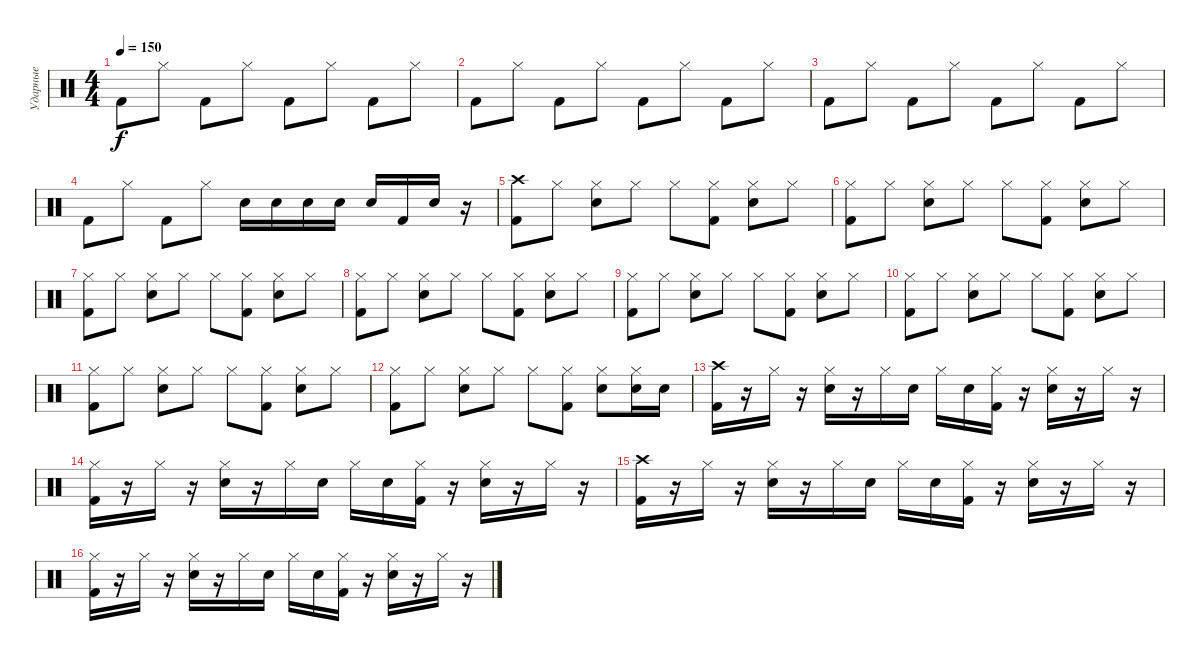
\track ("Ударные" "Ударные") {instrument percussion}
\staff {score}
\articulation defaults
\ts (4 4)
\tempo 150
\clef neutral
\ks c "Kick (hit) 2".8{dy f} "Hi-Hat (closed)".8 "Kick (hit) 2".8 "Hi-Hat (closed)".8 "Kick (hit) 2".8 "Hi-Hat (closed)".8 "Kick (hit) 2".8 "Hi-Hat (closed)".8
|
"Kick (hit) 2".8 "Hi-Hat (closed)".8 "Kick (hit) 2".8 "Hi-Hat (closed)".8 "Kick (hit) 2".8 "Hi-Hat (closed)".8 "Kick (hit) 2".8 "Hi-Hat (closed)".8 |
"Kick (hit) 2".8 "Hi-Hat (closed)".8 "Kick (hit) 2".8 "Hi-Hat (closed)".8 "Kick (hit) 2".8 "Hi-Hat (closed)".8 "Kick (hit) 2".8 "Hi-Hat (closed)".8 |
"Kick (hit) 2".8 "Hi-Hat (closed)".8 "Kick (hit) 2".8 "Hi-Hat (closed)".8 "Electric Snare (hit)".16 "Electric Snare (hit)".16 "Electric Snare (hit)".16 "Electric Snare (hit)".16 "Electric Snare (hit)".16 "Kick (hit) 2".16 "Electric Snare (hit)".16 r.16 |
("Kick (hit) 2" "Crash high (hit)").8 "Hi-Hat (closed)".8 ("Electric Snare (hit)" "Hi-Hat (closed)").8 "Hi-Hat (closed)".8 "Hi-Hat (closed)".8 ("Kick (hit) 2" "Hi-Hat (closed)").8 ("Electric Snare (hit)" "Hi-Hat (closed)").8 "Hi-Hat (closed)".8 |
("Kick (hit) 2" "Hi-Hat (closed)").8 "Hi-Hat (closed)".8 ("Electric Snare (hit)" "Hi-Hat (closed)").8 "Hi-Hat (closed)".8 "Hi-Hat (closed)".8 ("Kick (hit) 2" "Hi-Hat (closed)").8 ("Electric Snare (hit)" "Hi-Hat (closed)").8 "Hi-Hat (closed)".8 |
("Kick (hit) 2" "Hi-Hat (closed)").8 "Hi-Hat (closed)".8 ("Electric Snare (hit)" "Hi-Hat (closed)").8 "Hi-Hat (closed)".8 "Hi-Hat (closed)".8 ("Kick (hit) 2" "Hi-Hat (closed)").8 ("Electric Snare (hit)" "Hi-Hat (closed)").8 "Hi-Hat (closed)".8 |
("Kick (hit) 2" "Hi-Hat (closed)").8 "Hi-Hat (closed)".8 ("Electric Snare (hit)" "Hi-Hat (closed)").8 "Hi-Hat (closed)".8 "Hi-Hat (closed)".8 ("Kick (hit) 2" "Hi-Hat (closed)").8 ("Electric Snare (hit)" "Hi-Hat (closed)").8 "Hi-Hat (closed)".8 |
("Kick (hit) 2" "Hi-Hat (closed)").8 "Hi-Hat (closed)".8 ("Electric Snare (hit)" "Hi-Hat (closed)").8 "Hi-Hat (closed)".8 "Hi-Hat (closed)".8 ("Kick (hit) 2" "Hi-Hat (closed)").8 ("Electric Snare (hit)" "Hi-Hat (closed)").8 "Hi-Hat (closed)".8 |
("Kick (hit) 2" "Hi-Hat (closed)").8 "Hi-Hat (closed)".8 ("Electric Snare (hit)" "Hi-Hat (closed)").8 "Hi-Hat (closed)".8 "Hi-Hat (closed)".8 ("Kick (hit) 2" "Hi-Hat (closed)").8 ("Electric Snare (hit)" "Hi-Hat (closed)").8 "Hi-Hat (closed)".8 |
("Kick (hit) 2" "Hi-Hat (closed)").8 "Hi-Hat (closed)".8 ("Electric Snare (hit)" "Hi-Hat (closed)").8 "Hi-Hat (closed)".8 "Hi-Hat (closed)".8 ("Kick (hit) 2" "Hi-Hat (closed)").8 ("Electric Snare (hit)" "Hi-Hat (closed)").8 "Hi-Hat (closed)".8 |
("Kick (hit) 2" "Hi-Hat (closed)").8 "Hi-Hat (closed)".8 ("Electric Snare (hit)" "Hi-Hat (closed)").8 "Hi-Hat (closed)".8 "Hi-Hat (closed)".8 ("Kick (hit) 2" "Hi-Hat (closed)").8 ("Electric Snare (hit)" "Hi-Hat (closed)").8 ("Electric Snare (hit)" "Hi-Hat (closed)").16 "Electric Snare (hit)".16 |
("Kick (hit) 2" "Crash high (hit)").16 r.16 "Hi-Hat (closed)".16 r.16 ("Electric Snare (hit)" "Hi-Hat (closed)").16 r.16 "Hi-Hat (closed)".16 "Electric Snare (hit)".16 "Hi-Hat (closed)".16 "Electric Snare (hit)".16 ("Kick (hit) 2" "Hi-Hat (closed)").16 r.16 ("Electric Snare (hit)" "Hi-Hat (closed)").16 r.16 "Hi-Hat (closed)".16 r.16 |
("Kick (hit) 2" "Hi-Hat (closed)").16 r.16 "Hi-Hat (closed)".16 r.16 ("Electric Snare (hit)" "Hi-Hat (closed)").16 r.16 "Hi-Hat (closed)".16 "Electric Snare (hit)".16 "Hi-Hat (closed)".16 "Electric Snare (hit)".16 ("Kick (hit) 2" "Hi-Hat (closed)").16 r.16 ("Electric Snare (hit)" "Hi-Hat (closed)").16 r.16 "Hi-Hat (closed)".16 r.16 |
("Kick (hit) 2" "Crash high (hit)").16 r.16 "Hi-Hat (closed)".16 r.16 ("Electric Snare (hit)" "Hi-Hat (closed)").16 r.16 "Hi-Hat (closed)".16 "Electric Snare (hit)".16 "Hi-Hat (closed)".16 "Electric Snare (hit)".16 ("Kick (hit) 2" "Hi-Hat (closed)").16 r.16 ("Electric Snare (hit)" "Hi-Hat (closed)").16 r.16 "Hi-Hat (closed)".16 r.16 |
("Kick (hit) 2" "Hi-Hat (closed)").16 r.16 "Hi-Hat (closed)".16 r.16 ("Electric Snare (hit)" "Hi-Hat (closed)").16 r.16 "Hi-Hat (closed)".16 "Electric Snare (hit)".16 "Hi-Hat (closed)".16 "Electric Snare (hit)".16 ("Kick (hit) 2" "Hi-Hat (closed)").16 r.16 ("Electric Snare (hit)" "Hi-Hat (closed)").16 r.16 "Hi-Hat (closed)".16 r.16
